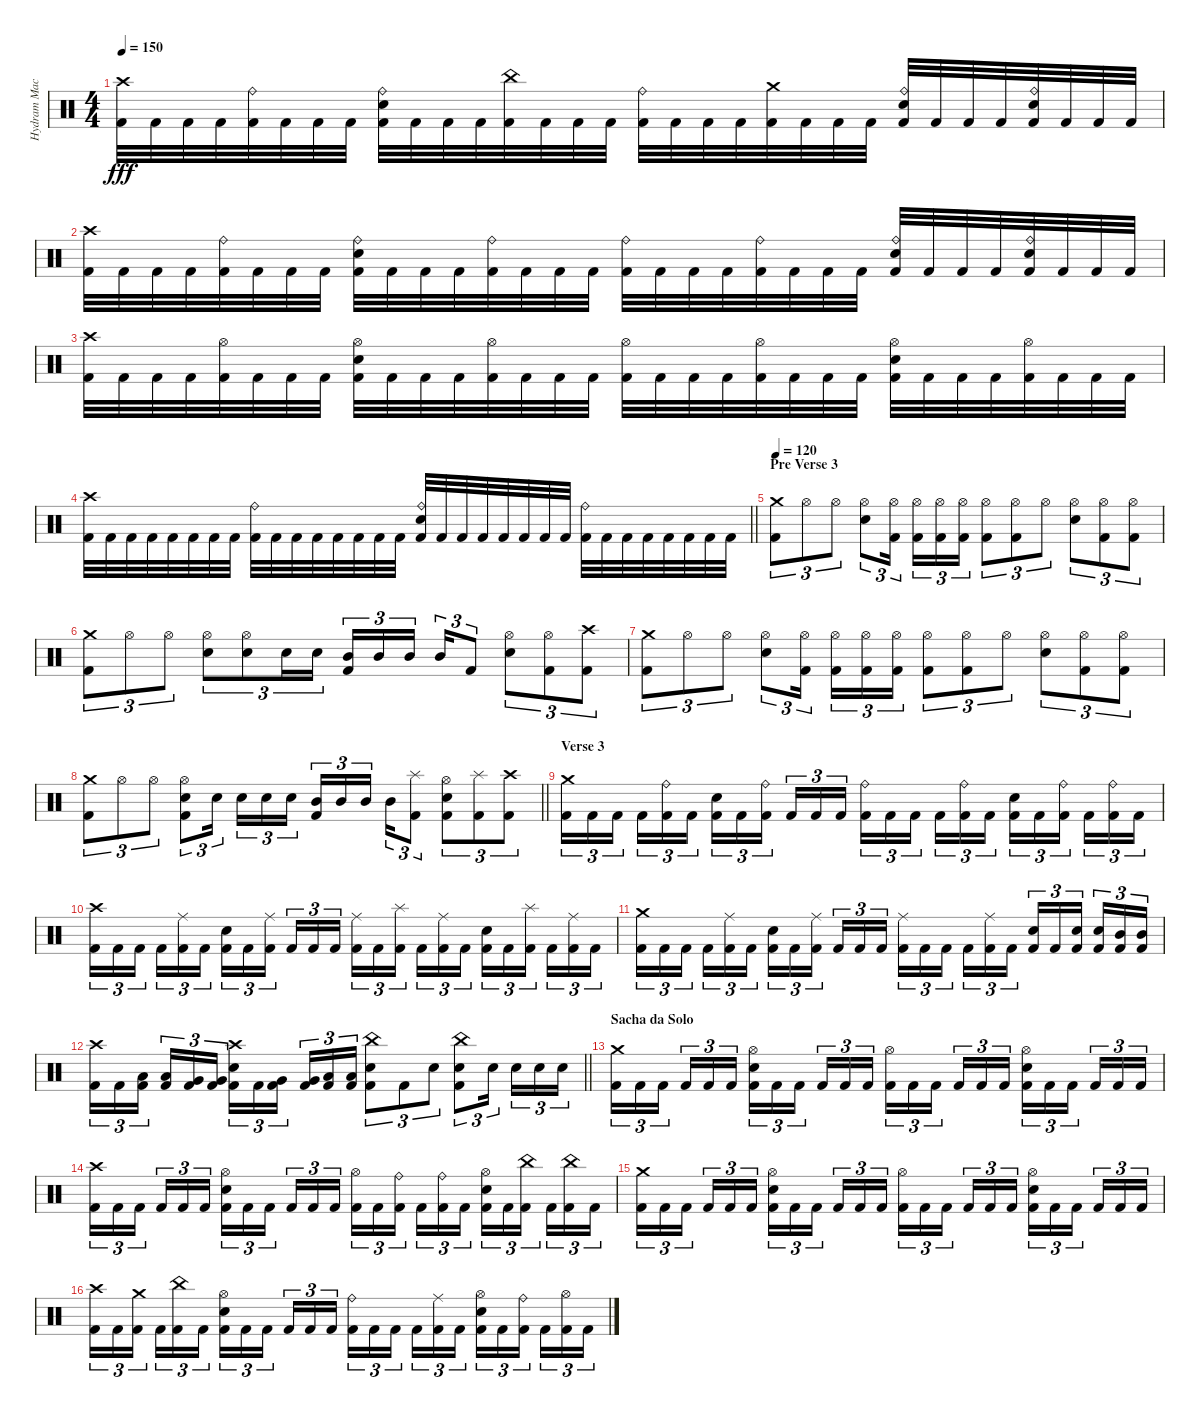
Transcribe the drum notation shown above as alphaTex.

\track ("Hydram Machine" "Hydram Mac") {instrument percussion}
\staff {score}
\articulation defaults
\ts (4 4)
\tempo 150
\clef neutral
\ks c
("Crash high (hit)" "Kick (hit) 2").32{dy fff} "Kick (hit) 2".32 "Kick (hit) 2".32 "Kick (hit) 2".32 ("Ride (bell)" "Kick (hit) 2").32 "Kick (hit) 2".32 "Kick (hit) 2".32 "Kick (hit) 2".32 ("Ride (bell)" "Electric Snare (hit)" "Kick (hit) 2").32 "Kick (hit) 2".32 "Kick (hit) 2".32 "Kick (hit) 2".32 ("China (hit)" "Kick (hit) 2").32 "Kick (hit) 2".32 "Kick (hit) 2".32 "Kick (hit) 2".32 ("Ride (bell)" "Kick (hit) 2").32 "Kick (hit) 2".32 "Kick (hit) 2".32 "Kick (hit) 2".32 ("Crash medium (hit)" "Kick (hit) 2").32 "Kick (hit) 2".32 "Kick (hit) 2".32 "Kick (hit) 2".32 ("Ride (bell)" "Electric Snare (hit)" "Kick (hit) 2").32 "Kick (hit) 2".32 "Kick (hit) 2".32 "Kick (hit) 2".32 ("Ride (bell)" "Electric Snare (hit)" "Kick (hit) 2").32 "Kick (hit) 2".32 "Kick (hit) 2".32 "Kick (hit) 2".32 |
("Crash high (hit)" "Kick (hit) 2").32 "Kick (hit) 2".32 "Kick (hit) 2".32 "Kick (hit) 2".32 ("Ride (bell)" "Kick (hit) 2").32 "Kick (hit) 2".32 "Kick (hit) 2".32 "Kick (hit) 2".32 ("Ride (bell)" "Electric Snare (hit)" "Kick (hit) 2").32 "Kick (hit) 2".32 "Kick (hit) 2".32 "Kick (hit) 2".32 ("Ride (bell)" "Kick (hit) 2").32 "Kick (hit) 2".32 "Kick (hit) 2".32 "Kick (hit) 2".32 ("Ride (bell)" "Kick (hit) 2").32 "Kick (hit) 2".32 "Kick (hit) 2".32 "Kick (hit) 2".32 ("Ride (bell)" "Kick (hit) 2").32 "Kick (hit) 2".32 "Kick (hit) 2".32 "Kick (hit) 2".32 ("Ride (bell)" "Electric Snare (hit)" "Kick (hit) 2").32 "Kick (hit) 2".32 "Kick (hit) 2".32 "Kick (hit) 2".32 ("Ride (bell)" "Electric Snare (hit)" "Kick (hit) 2").32 "Kick (hit) 2".32 "Kick (hit) 2".32 "Kick (hit) 2".32 |
("Crash high (hit)" "Kick (hit) 2").32 "Kick (hit) 2".32 "Kick (hit) 2".32 "Kick (hit) 2".32 ("Hi-Hat (open)" "Kick (hit) 2").32 "Kick (hit) 2".32 "Kick (hit) 2".32 "Kick (hit) 2".32 ("Hi-Hat (open)" "Electric Snare (hit)" "Kick (hit) 2").32 "Kick (hit) 2".32 "Kick (hit) 2".32 "Kick (hit) 2".32 ("Hi-Hat (open)" "Kick (hit) 2").32 "Kick (hit) 2".32 "Kick (hit) 2".32 "Kick (hit) 2".32 ("Hi-Hat (open)" "Kick (hit) 2").32 "Kick (hit) 2".32 "Kick (hit) 2".32 "Kick (hit) 2".32 ("Hi-Hat (open)" "Kick (hit) 2").32 "Kick (hit) 2".32 "Kick (hit) 2".32 "Kick (hit) 2".32 ("Hi-Hat (open)" "Electric Snare (hit)" "Kick (hit) 2").32 "Kick (hit) 2".32 "Kick (hit) 2".32 "Kick (hit) 2".32 ("Hi-Hat (open)" "Kick (hit) 2").32 "Kick (hit) 2".32 "Kick (hit) 2".32 "Kick (hit) 2".32 |
\barLineRight lightlight
("Crash high (hit)" "Kick (hit) 2").32 "Kick (hit) 2".32 "Kick (hit) 2".32 "Kick (hit) 2".32 "Kick (hit) 2".32 "Kick (hit) 2".32 "Kick (hit) 2".32 "Kick (hit) 2".32 ("Ride (bell)" "Kick (hit) 2").32 "Kick (hit) 2".32 "Kick (hit) 2".32 "Kick (hit) 2".32 "Kick (hit) 2".32 "Kick (hit) 2".32 "Kick (hit) 2".32 "Kick (hit) 2".32 ("Ride (bell)" "Electric Snare (hit)" "Kick (hit) 2").32 "Kick (hit) 2".32 "Kick (hit) 2".32 "Kick (hit) 2".32 "Kick (hit) 2".32 "Kick (hit) 2".32 "Kick (hit) 2".32 "Kick (hit) 2".32 ("Ride (bell)" "Kick (hit) 2").32 "Kick (hit) 2".32 "Kick (hit) 2".32 "Kick (hit) 2".32 "Kick (hit) 2".32 "Kick (hit) 2".32 "Kick (hit) 2".32 "Kick (hit) 2".32 |
\section ("" "Pre Verse 3")
\tempo 120
("Crash medium (hit)" "Kick (hit) 2").8{tu (3 2)} "Hi-Hat (open)".8{tu (3 2)} "Hi-Hat (open)".8{tu (3 2)} ("Hi-Hat (open)" "Electric Snare (hit)").8{tu (3 2)} ("Hi-Hat (open)" "Kick (hit) 2").16{tu (3 2) beam splitsecondary} ("Hi-Hat (open)" "Kick (hit) 2").16{tu (3 2)} ("Hi-Hat (open)" "Kick (hit) 2").16{tu (3 2)} ("Hi-Hat (open)" "Kick (hit) 2").16{tu (3 2)} ("Hi-Hat (open)" "Kick (hit) 2").8{tu (3 2)} ("Hi-Hat (open)" "Kick (hit) 2").8{tu (3 2)} "Hi-Hat (open)".8{tu (3 2)} ("Hi-Hat (open)" "Electric Snare (hit)").8{tu (3 2)} ("Hi-Hat (open)" "Kick (hit) 2").8{tu (3 2)} ("Hi-Hat (open)" "Kick (hit) 2").8{tu (3 2)} |
("Crash medium (hit)" "Kick (hit) 2").8{tu (3 2)} "Hi-Hat (open)".8{tu (3 2)} "Hi-Hat (open)".8{tu (3 2)} ("Hi-Hat (open)" "Electric Snare (hit)").8{tu (3 2)} ("Hi-Hat (open)" "Electric Snare (hit)").8{tu (3 2)} "Electric Snare (hit)".16{tu (3 2)} "Electric Snare (hit)".16{tu (3 2)} ("Mid Tom (hit)" "Kick (hit) 2").16{tu (3 2)} "Mid Tom (hit)".16{tu (3 2)} "Mid Tom (hit)".16{tu (3 2) beam splitsecondary} "Mid Tom (hit)".16{tu (3 2)} "Kick (hit) 2".8{tu (3 2)} ("Hi-Hat (open)" "Electric Snare (hit)").8{tu (3 2)} ("Hi-Hat (open)" "Kick (hit) 2").8{tu (3 2)} ("Crash high (hit)" "Kick (hit) 2").8{tu (3 2)} |
("Crash medium (hit)" "Kick (hit) 2").8{tu (3 2)} "Hi-Hat (open)".8{tu (3 2)} "Hi-Hat (open)".8{tu (3 2)} ("Hi-Hat (open)" "Electric Snare (hit)").8{tu (3 2)} ("Hi-Hat (open)" "Kick (hit) 2").16{tu (3 2) beam splitsecondary} ("Hi-Hat (open)" "Kick (hit) 2").16{tu (3 2)} ("Hi-Hat (open)" "Kick (hit) 2").16{tu (3 2)} ("Hi-Hat (open)" "Kick (hit) 2").16{tu (3 2)} ("Hi-Hat (open)" "Kick (hit) 2").8{tu (3 2)} ("Hi-Hat (open)" "Kick (hit) 2").8{tu (3 2)} "Hi-Hat (open)".8{tu (3 2)} ("Hi-Hat (open)" "Electric Snare (hit)").8{tu (3 2)} ("Hi-Hat (open)" "Kick (hit) 2").8{tu (3 2)} ("Hi-Hat (open)" "Kick (hit) 2").8{tu (3 2)} |
\barLineRight lightlight
("Crash medium (hit)" "Kick (hit) 2").8{tu (3 2)} "Hi-Hat (open)".8{tu (3 2)} "Hi-Hat (open)".8{tu (3 2)} ("Hi-Hat (open)" "Electric Snare (hit)" "Kick (hit) 2").8{tu (3 2)} "Electric Snare (hit)".16{tu (3 2) beam splitsecondary} "Electric Snare (hit)".16{tu (3 2)} "Electric Snare (hit)".16{tu (3 2)} "Electric Snare (hit)".16{tu (3 2)} ("Mid Tom (hit)" "Kick (hit) 2").16{tu (3 2)} "Mid Tom (hit)".16{tu (3 2)} "Mid Tom (hit)".16{tu (3 2) beam splitsecondary} "Mid Tom (hit)".16{tu (3 2)} ("Splash (hit)" "Kick (hit) 2").8{tu (3 2)} ("Hi-Hat (open)" "Electric Snare (hit)" "Kick (hit) 2").8{tu (3 2)} ("Splash (hit)" "Kick (hit) 2").8{tu (3 2)} ("Crash high (hit)" "Kick (hit) 2").8{tu (3 2)} |
\section ("" "Verse 3")
("Crash medium (hit)" "Kick (hit) 2").16{tu (3 2)} "Kick (hit) 2".16{tu (3 2)} "Kick (hit) 2".16{tu (3 2) beam splitsecondary} "Kick (hit) 2".16{tu (3 2)} ("Ride (bell)" "Kick (hit) 2").16{tu (3 2)} "Kick (hit) 2".16{tu (3 2)} ("Electric Snare (hit)" "Kick (hit) 2").16{tu (3 2)} "Kick (hit) 2".16{tu (3 2)} ("Ride (bell)" "Kick (hit) 2").16{tu (3 2) beam splitsecondary} "Kick (hit) 2".16{tu (3 2)} "Kick (hit) 2".16{tu (3 2)} "Kick (hit) 2".16{tu (3 2)} ("Ride (bell)" "Kick (hit) 2").16{tu (3 2)} "Kick (hit) 2".16{tu (3 2)} "Kick (hit) 2".16{tu (3 2) beam splitsecondary} "Kick (hit) 2".16{tu (3 2)} ("Ride (bell)" "Kick (hit) 2").16{tu (3 2)} "Kick (hit) 2".16{tu (3 2)} ("Electric Snare (hit)" "Kick (hit) 2").16{tu (3 2)} "Kick (hit) 2".16{tu (3 2)} ("Ride (bell)" "Kick (hit) 2").16{tu (3 2) beam splitsecondary} "Kick (hit) 2".16{tu (3 2)} ("Ride (bell)" "Kick (hit) 2").16{tu (3 2)} "Kick (hit) 2".16{tu (3 2)} |
("Crash high (hit)" "Kick (hit) 2").16{tu (3 2)} "Kick (hit) 2".16{tu (3 2)} "Kick (hit) 2".16{tu (3 2) beam splitsecondary} "Kick (hit) 2".16{tu (3 2)} ("Ride (middle)" "Kick (hit) 2").16{tu (3 2)} "Kick (hit) 2".16{tu (3 2)} ("Electric Snare (hit)" "Kick (hit) 2").16{tu (3 2)} "Kick (hit) 2".16{tu (3 2)} ("Ride (middle)" "Kick (hit) 2").16{tu (3 2) beam splitsecondary} "Kick (hit) 2".16{tu (3 2)} "Kick (hit) 2".16{tu (3 2)} "Kick (hit) 2".16{tu (3 2)} ("Ride (middle)" "Kick (hit) 2").16{tu (3 2)} "Kick (hit) 2".16{tu (3 2)} ("Splash (hit)" "Kick (hit) 2").16{tu (3 2) beam splitsecondary} "Kick (hit) 2".16{tu (3 2)} ("Ride (middle)" "Kick (hit) 2").16{tu (3 2)} "Kick (hit) 2".16{tu (3 2)} ("Electric Snare (hit)" "Kick (hit) 2").16{tu (3 2)} "Kick (hit) 2".16{tu (3 2)} ("Splash (hit)" "Kick (hit) 2").16{tu (3 2) beam splitsecondary} "Kick (hit) 2".16{tu (3 2)} ("Ride (middle)" "Kick (hit) 2").16{tu (3 2)} "Kick (hit) 2".16{tu (3 2)} |
("Crash medium (hit)" "Kick (hit) 2").16{tu (3 2)} "Kick (hit) 2".16{tu (3 2)} "Kick (hit) 2".16{tu (3 2) beam splitsecondary} "Kick (hit) 2".16{tu (3 2)} ("Ride (middle)" "Kick (hit) 2").16{tu (3 2)} "Kick (hit) 2".16{tu (3 2)} ("Electric Snare (hit)" "Kick (hit) 2").16{tu (3 2)} "Kick (hit) 2".16{tu (3 2)} ("Ride (middle)" "Kick (hit) 2").16{tu (3 2) beam splitsecondary} "Kick (hit) 2".16{tu (3 2)} "Kick (hit) 2".16{tu (3 2)} "Kick (hit) 2".16{tu (3 2)} ("Ride (middle)" "Kick (hit) 2").16{tu (3 2)} "Kick (hit) 2".16{tu (3 2)} "Kick (hit) 2".16{tu (3 2) beam splitsecondary} "Kick (hit) 2".16{tu (3 2)} ("Ride (middle)" "Kick (hit) 2").16{tu (3 2)} "Kick (hit) 2".16{tu (3 2)} ("Electric Snare (hit)" "Kick (hit) 2").16{tu (3 2)} "Kick (hit) 2".16{tu (3 2)} ("Electric Snare (hit)" "Kick (hit) 2").16{tu (3 2) beam splitsecondary} ("Electric Snare (hit)" "Kick (hit) 2").16{tu (3 2)} ("Mid Tom (hit)" "Kick (hit) 2").16{tu (3 2)} ("Mid Tom (hit)" "Kick (hit) 2").16{tu (3 2)} |
\barLineRight lightlight
("Crash high (hit)" "Kick (hit) 2").16{tu (3 2)} "Kick (hit) 2".16{tu (3 2)} ("Low Tom (hit)" "Kick (hit) 2").16{tu (3 2) beam splitsecondary} ("Low Tom (hit)" "Kick (hit) 2").16{tu (3 2)} ("Very Low Tom (hit)" "Kick (hit) 2").16{tu (3 2)} ("Very Low Tom (hit)" "Kick (hit) 2").16{tu (3 2)} ("Crash high (hit)" "Electric Snare (hit)" "Kick (hit) 2").16{tu (3 2)} "Kick (hit) 2".16{tu (3 2)} ("Very Low Tom (hit)" "Kick (hit) 2").16{tu (3 2) beam splitsecondary} ("Very Low Tom (hit)" "Kick (hit) 2").16{tu (3 2)} ("Low Floor Tom (hit)" "Kick (hit) 2").16{tu (3 2)} ("Low Floor Tom (hit)" "Kick (hit) 2").16{tu (3 2)} ("China (hit)" "Electric Snare (hit)" "Kick (hit) 2").8{tu (3 2)} "Kick (hit) 2".8{tu (3 2)} "Electric Snare (hit)".8{tu (3 2)} ("China (hit)" "Electric Snare (hit)" "Kick (hit) 2").8{tu (3 2)} "Electric Snare (hit)".16{tu (3 2) beam splitsecondary} "Electric Snare (hit)".16{tu (3 2)} "Electric Snare (hit)".16{tu (3 2)} "Electric Snare (hit)".16{tu (3 2)} |
\section ("" "Sacha da Solo")
("Crash medium (hit)" "Kick (hit) 2").16{tu (3 2)} "Kick (hit) 2".16{tu (3 2)} "Kick (hit) 2".16{tu (3 2) beam splitsecondary} "Kick (hit) 2".16{tu (3 2)} "Kick (hit) 2".16{tu (3 2)} "Kick (hit) 2".16{tu (3 2)} ("Hi-Hat (open)" "Electric Snare (hit)" "Kick (hit) 2").16{tu (3 2)} "Kick (hit) 2".16{tu (3 2)} "Kick (hit) 2".16{tu (3 2) beam splitsecondary} "Kick (hit) 2".16{tu (3 2)} "Kick (hit) 2".16{tu (3 2)} "Kick (hit) 2".16{tu (3 2)} ("Hi-Hat (open)" "Kick (hit) 2").16{tu (3 2)} "Kick (hit) 2".16{tu (3 2)} "Kick (hit) 2".16{tu (3 2) beam splitsecondary} "Kick (hit) 2".16{tu (3 2)} "Kick (hit) 2".16{tu (3 2)} "Kick (hit) 2".16{tu (3 2)} ("Hi-Hat (open)" "Electric Snare (hit)" "Kick (hit) 2").16{tu (3 2)} "Kick (hit) 2".16{tu (3 2)} "Kick (hit) 2".16{tu (3 2) beam splitsecondary} "Kick (hit) 2".16{tu (3 2)} "Kick (hit) 2".16{tu (3 2)} "Kick (hit) 2".16{tu (3 2)} |
("Crash high (hit)" "Kick (hit) 2").16{tu (3 2)} "Kick (hit) 2".16{tu (3 2)} "Kick (hit) 2".16{tu (3 2) beam splitsecondary} "Kick (hit) 2".16{tu (3 2)} "Kick (hit) 2".16{tu (3 2)} "Kick (hit) 2".16{tu (3 2)} ("Hi-Hat (open)" "Electric Snare (hit)" "Kick (hit) 2").16{tu (3 2)} "Kick (hit) 2".16{tu (3 2)} "Kick (hit) 2".16{tu (3 2) beam splitsecondary} "Kick (hit) 2".16{tu (3 2)} "Kick (hit) 2".16{tu (3 2)} "Kick (hit) 2".16{tu (3 2)} ("Hi-Hat (open)" "Kick (hit) 2").16{tu (3 2)} "Kick (hit) 2".16{tu (3 2)} ("Ride (bell)" "Kick (hit) 2").16{tu (3 2) beam splitsecondary} "Kick (hit) 2".16{tu (3 2)} ("Ride (bell)" "Kick (hit) 2").16{tu (3 2)} "Kick (hit) 2".16{tu (3 2)} ("Hi-Hat (open)" "Electric Snare (hit)" "Kick (hit) 2").16{tu (3 2)} "Kick (hit) 2".16{tu (3 2)} ("China (hit)" "Kick (hit) 2").16{tu (3 2) beam splitsecondary} "Kick (hit) 2".16{tu (3 2)} ("China (hit)" "Kick (hit) 2").16{tu (3 2)} "Kick (hit) 2".16{tu (3 2)} |
("Crash medium (hit)" "Kick (hit) 2").16{tu (3 2)} "Kick (hit) 2".16{tu (3 2)} "Kick (hit) 2".16{tu (3 2) beam splitsecondary} "Kick (hit) 2".16{tu (3 2)} "Kick (hit) 2".16{tu (3 2)} "Kick (hit) 2".16{tu (3 2)} ("Hi-Hat (open)" "Electric Snare (hit)" "Kick (hit) 2").16{tu (3 2)} "Kick (hit) 2".16{tu (3 2)} "Kick (hit) 2".16{tu (3 2) beam splitsecondary} "Kick (hit) 2".16{tu (3 2)} "Kick (hit) 2".16{tu (3 2)} "Kick (hit) 2".16{tu (3 2)} ("Hi-Hat (open)" "Kick (hit) 2").16{tu (3 2)} "Kick (hit) 2".16{tu (3 2)} "Kick (hit) 2".16{tu (3 2) beam splitsecondary} "Kick (hit) 2".16{tu (3 2)} "Kick (hit) 2".16{tu (3 2)} "Kick (hit) 2".16{tu (3 2)} ("Hi-Hat (open)" "Electric Snare (hit)" "Kick (hit) 2").16{tu (3 2)} "Kick (hit) 2".16{tu (3 2)} "Kick (hit) 2".16{tu (3 2) beam splitsecondary} "Kick (hit) 2".16{tu (3 2)} "Kick (hit) 2".16{tu (3 2)} "Kick (hit) 2".16{tu (3 2)} |
("Crash high (hit)" "Kick (hit) 2").16{tu (3 2)} "Kick (hit) 2".16{tu (3 2)} ("Crash medium (hit)" "Kick (hit) 2").16{tu (3 2) beam splitsecondary} "Kick (hit) 2".16{tu (3 2)} ("China (hit)" "Kick (hit) 2").16{tu (3 2)} "Kick (hit) 2".16{tu (3 2)} ("Hi-Hat (open)" "Electric Snare (hit)" "Kick (hit) 2").16{tu (3 2)} "Kick (hit) 2".16{tu (3 2)} "Kick (hit) 2".16{tu (3 2) beam splitsecondary} "Kick (hit) 2".16{tu (3 2)} "Kick (hit) 2".16{tu (3 2)} "Kick (hit) 2".16{tu (3 2)} ("Ride (bell)" "Kick (hit) 2").16{tu (3 2)} "Kick (hit) 2".16{tu (3 2)} "Kick (hit) 2".16{tu (3 2) beam splitsecondary} "Kick (hit) 2".16{tu (3 2)} ("Ride (middle)" "Kick (hit) 2").16{tu (3 2)} "Kick (hit) 2".16{tu (3 2)} ("Hi-Hat (open)" "Electric Snare (hit)" "Kick (hit) 2").16{tu (3 2)} "Kick (hit) 2".16{tu (3 2)} ("Ride (bell)" "Kick (hit) 2").16{tu (3 2) beam splitsecondary} "Kick (hit) 2".16{tu (3 2)} ("Hi-Hat (open)" "Kick (hit) 2").16{tu (3 2)} "Kick (hit) 2".16{tu (3 2)}
